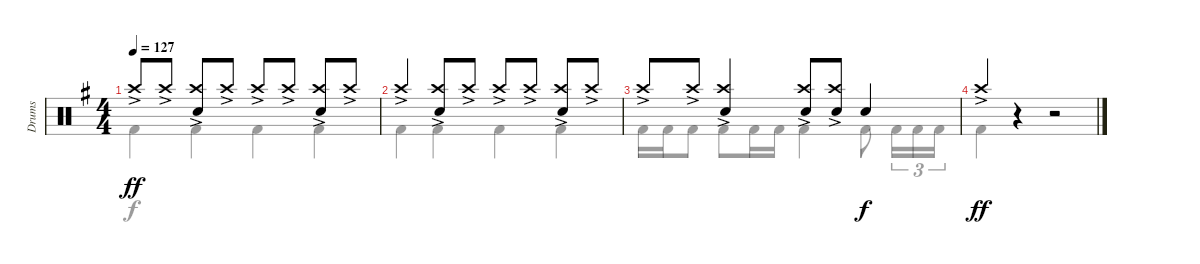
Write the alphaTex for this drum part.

\track ("Drums" "Drums") {instrument percussion}
\staff {score}
\articulation defaults
\voice
\ts (4 4)
\tempo 127
\clef neutral
\ks g "Crash high (hit)"{ac}.8{dy ff} "Crash high (hit)"{ac}.8
("Crash high (hit)"{ac} "Snare (hit) 2").8 "Crash high (hit)"{ac}.8 "Crash high (hit)"{ac}.8 "Crash high (hit)"{ac}.8 ("Crash high (hit)"{ac} "Snare (hit) 2").8 "Crash high (hit)"{ac}.8 |
"Crash high (hit)"{ac}.4 ("Crash high (hit)"{ac} "Snare (hit) 2").8 "Crash high (hit)"{ac}.8 "Crash high (hit)"{ac}.8 "Crash high (hit)"{ac}.8 ("Crash high (hit)"{ac} "Snare (hit) 2").8 "Crash high (hit)"{ac}.8 |
"Crash high (hit)"{ac}.8 "Crash high (hit)"{ac}.8 ("Crash high (hit)"{ac} "Snare (hit) 2").4 ("Crash high (hit)"{ac} "Snare (hit) 2").8 ("Crash high (hit)"{ac} "Snare (hit) 2").8 "Snare (hit) 2".4{dy f} |
"Crash high (hit)"{ac}.4{dy ff} r.4 r.2 |
\voice
\clef neutral
\ottava regular
\simile none
\ks g "Kick (hit) 2".4{dy f} "Kick (hit) 2".4 "Kick (hit) 2".4 "Kick (hit) 2".4
|
"Kick (hit) 2".4 "Kick (hit) 2".4 "Kick (hit) 2".4 "Kick (hit) 2".4 |
"Kick (hit) 2".16 "Kick (hit) 2".16 "Kick (hit) 2".8 "Kick (hit) 2".8 "Kick (hit) 2".16 "Kick (hit) 2".16 "Kick (hit) 2".4 "Kick (hit) 2".8 "Kick (hit) 2".16{tu (3 2)} "Kick (hit) 2".16{tu (3 2)} "Kick (hit) 2".16{tu (3 2)} |
"Kick (hit) 2".4 r.4 r.2 |
